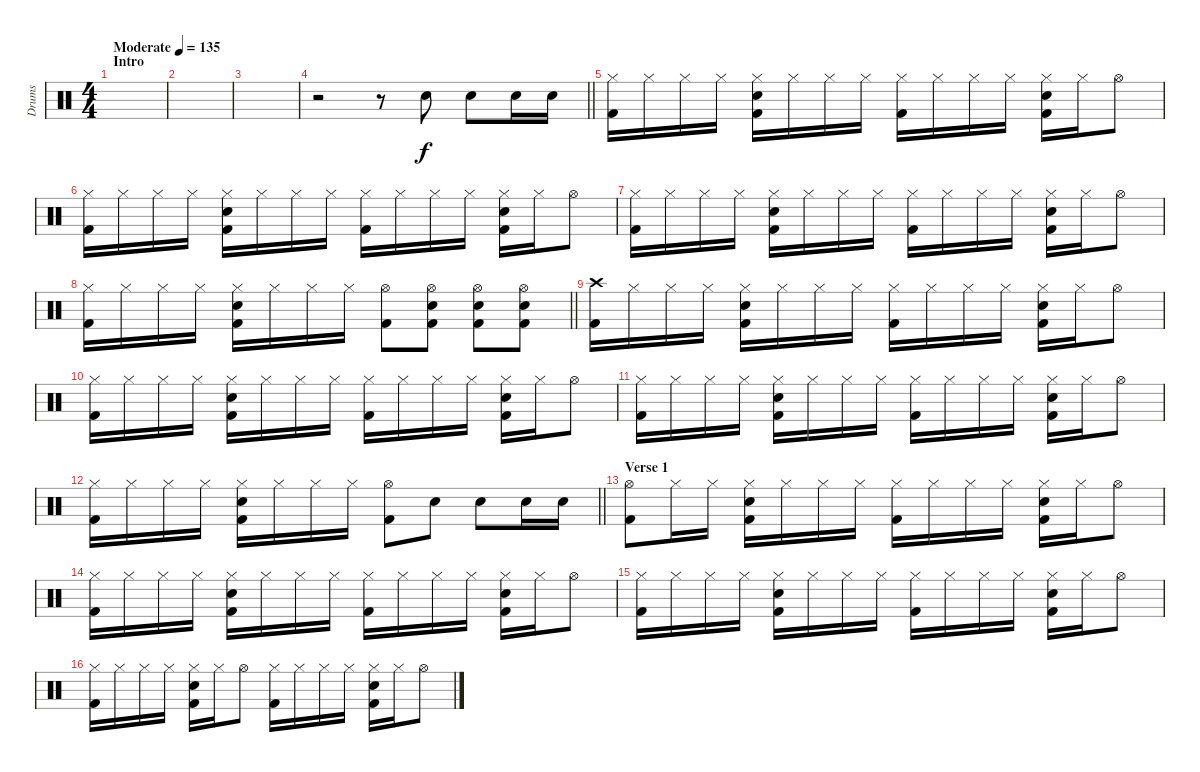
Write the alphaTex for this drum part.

\track ("Drums" "Drums") {instrument percussion}
\staff {score}
\articulation defaults
\ts (4 4)
\section ("" "Intro")
\tempo (135 "Moderate")
\clef neutral
\ks c
|
|
|
\barLineRight lightlight
r.2 r.8 "Electric Snare (hit)".8 "Electric Snare (hit)".8 "Electric Snare (hit)".16 "Electric Snare (hit)".16 |
("Hi-Hat (closed)" "Kick (hit) 2").16 "Hi-Hat (closed)".16 "Hi-Hat (closed)".16 "Hi-Hat (closed)".16 ("Hi-Hat (closed)" "Electric Snare (hit)" "Kick (hit) 2").16 "Hi-Hat (closed)".16 "Hi-Hat (closed)".16 "Hi-Hat (closed)".16 ("Hi-Hat (closed)" "Kick (hit) 2").16 "Hi-Hat (closed)".16 "Hi-Hat (closed)".16 "Hi-Hat (closed)".16 ("Hi-Hat (closed)" "Electric Snare (hit)" "Kick (hit) 2").16 "Hi-Hat (closed)".16 "Hi-Hat (open)".8 |
("Hi-Hat (closed)" "Kick (hit) 2").16 "Hi-Hat (closed)".16 "Hi-Hat (closed)".16 "Hi-Hat (closed)".16 ("Hi-Hat (closed)" "Electric Snare (hit)" "Kick (hit) 2").16 "Hi-Hat (closed)".16 "Hi-Hat (closed)".16 "Hi-Hat (closed)".16 ("Hi-Hat (closed)" "Kick (hit) 2").16 "Hi-Hat (closed)".16 "Hi-Hat (closed)".16 "Hi-Hat (closed)".16 ("Hi-Hat (closed)" "Electric Snare (hit)" "Kick (hit) 2").16 "Hi-Hat (closed)".16 "Hi-Hat (open)".8 |
("Hi-Hat (closed)" "Kick (hit) 2").16 "Hi-Hat (closed)".16 "Hi-Hat (closed)".16 "Hi-Hat (closed)".16 ("Hi-Hat (closed)" "Electric Snare (hit)" "Kick (hit) 2").16 "Hi-Hat (closed)".16 "Hi-Hat (closed)".16 "Hi-Hat (closed)".16 ("Hi-Hat (closed)" "Kick (hit) 2").16 "Hi-Hat (closed)".16 "Hi-Hat (closed)".16 "Hi-Hat (closed)".16 ("Hi-Hat (closed)" "Electric Snare (hit)" "Kick (hit) 2").16 "Hi-Hat (closed)".16 "Hi-Hat (open)".8 |
\barLineRight lightlight
("Hi-Hat (closed)" "Kick (hit) 2").16 "Hi-Hat (closed)".16 "Hi-Hat (closed)".16 "Hi-Hat (closed)".16 ("Hi-Hat (closed)" "Electric Snare (hit)" "Kick (hit) 2").16 "Hi-Hat (closed)".16 "Hi-Hat (closed)".16 "Hi-Hat (closed)".16 ("Hi-Hat (open)" "Kick (hit) 2").8 ("Hi-Hat (open)" "Electric Snare (hit)" "Kick (hit) 2").8 ("Hi-Hat (open)" "Electric Snare (hit)" "Kick (hit) 2").8 ("Hi-Hat (open)" "Electric Snare (hit)" "Kick (hit) 2").8 |
("Crash high (hit)" "Kick (hit) 2").16 "Hi-Hat (closed)".16 "Hi-Hat (closed)".16 "Hi-Hat (closed)".16 ("Hi-Hat (closed)" "Electric Snare (hit)" "Kick (hit) 2").16 "Hi-Hat (closed)".16 "Hi-Hat (closed)".16 "Hi-Hat (closed)".16 ("Hi-Hat (closed)" "Kick (hit) 2").16 "Hi-Hat (closed)".16 "Hi-Hat (closed)".16 "Hi-Hat (closed)".16 ("Hi-Hat (closed)" "Electric Snare (hit)" "Kick (hit) 2").16 "Hi-Hat (closed)".16 "Hi-Hat (open)".8 |
("Hi-Hat (closed)" "Kick (hit) 2").16 "Hi-Hat (closed)".16 "Hi-Hat (closed)".16 "Hi-Hat (closed)".16 ("Hi-Hat (closed)" "Electric Snare (hit)" "Kick (hit) 2").16 "Hi-Hat (closed)".16 "Hi-Hat (closed)".16 "Hi-Hat (closed)".16 ("Hi-Hat (closed)" "Kick (hit) 2").16 "Hi-Hat (closed)".16 "Hi-Hat (closed)".16 "Hi-Hat (closed)".16 ("Hi-Hat (closed)" "Electric Snare (hit)" "Kick (hit) 2").16 "Hi-Hat (closed)".16 "Hi-Hat (open)".8 |
("Hi-Hat (closed)" "Kick (hit) 2").16 "Hi-Hat (closed)".16 "Hi-Hat (closed)".16 "Hi-Hat (closed)".16 ("Hi-Hat (closed)" "Electric Snare (hit)" "Kick (hit) 2").16 "Hi-Hat (closed)".16 "Hi-Hat (closed)".16 "Hi-Hat (closed)".16 ("Hi-Hat (closed)" "Kick (hit) 2").16 "Hi-Hat (closed)".16 "Hi-Hat (closed)".16 "Hi-Hat (closed)".16 ("Hi-Hat (closed)" "Electric Snare (hit)" "Kick (hit) 2").16 "Hi-Hat (closed)".16 "Hi-Hat (open)".8 |
\barLineRight lightlight
("Hi-Hat (closed)" "Kick (hit) 2").16 "Hi-Hat (closed)".16 "Hi-Hat (closed)".16 "Hi-Hat (closed)".16 ("Hi-Hat (closed)" "Electric Snare (hit)" "Kick (hit) 2").16 "Hi-Hat (closed)".16 "Hi-Hat (closed)".16 "Hi-Hat (closed)".16 ("Hi-Hat (open)" "Kick (hit) 2").8 "Electric Snare (hit)".8 "Electric Snare (hit)".8 "Electric Snare (hit)".16 "Electric Snare (hit)".16 |
\section ("" "Verse 1")
("Hi-Hat (open)" "Kick (hit) 2").8 "Hi-Hat (closed)".16 "Hi-Hat (closed)".16 ("Hi-Hat (closed)" "Electric Snare (hit)" "Kick (hit) 2").16 "Hi-Hat (closed)".16 "Hi-Hat (closed)".16 "Hi-Hat (closed)".16 ("Hi-Hat (closed)" "Kick (hit) 2").16 "Hi-Hat (closed)".16 "Hi-Hat (closed)".16 "Hi-Hat (closed)".16 ("Hi-Hat (closed)" "Electric Snare (hit)" "Kick (hit) 2").16 "Hi-Hat (closed)".16 "Hi-Hat (open)".8 |
("Hi-Hat (closed)" "Kick (hit) 2").16 "Hi-Hat (closed)".16 "Hi-Hat (closed)".16 "Hi-Hat (closed)".16 ("Hi-Hat (closed)" "Electric Snare (hit)" "Kick (hit) 2").16 "Hi-Hat (closed)".16 "Hi-Hat (closed)".16 "Hi-Hat (closed)".16 ("Hi-Hat (closed)" "Kick (hit) 2").16 "Hi-Hat (closed)".16 "Hi-Hat (closed)".16 "Hi-Hat (closed)".16 ("Hi-Hat (closed)" "Electric Snare (hit)" "Kick (hit) 2").16 "Hi-Hat (closed)".16 "Hi-Hat (open)".8 |
("Hi-Hat (closed)" "Kick (hit) 2").16 "Hi-Hat (closed)".16 "Hi-Hat (closed)".16 "Hi-Hat (closed)".16 ("Hi-Hat (closed)" "Electric Snare (hit)" "Kick (hit) 2").16 "Hi-Hat (closed)".16 "Hi-Hat (closed)".16 "Hi-Hat (closed)".16 ("Hi-Hat (closed)" "Kick (hit) 2").16 "Hi-Hat (closed)".16 "Hi-Hat (closed)".16 "Hi-Hat (closed)".16 ("Hi-Hat (closed)" "Electric Snare (hit)" "Kick (hit) 2").16 "Hi-Hat (closed)".16 "Hi-Hat (open)".8 |
("Hi-Hat (closed)" "Kick (hit) 2").16 "Hi-Hat (closed)".16 "Hi-Hat (closed)".16 "Hi-Hat (closed)".16 ("Hi-Hat (closed)" "Electric Snare (hit)" "Kick (hit) 2").16 "Hi-Hat (closed)".16 "Hi-Hat (open)".8 ("Hi-Hat (closed)" "Kick (hit) 2").16 "Hi-Hat (closed)".16 "Hi-Hat (closed)".16 "Hi-Hat (closed)".16 ("Hi-Hat (closed)" "Electric Snare (hit)" "Kick (hit) 2").16 "Hi-Hat (closed)".16 "Hi-Hat (open)".8
